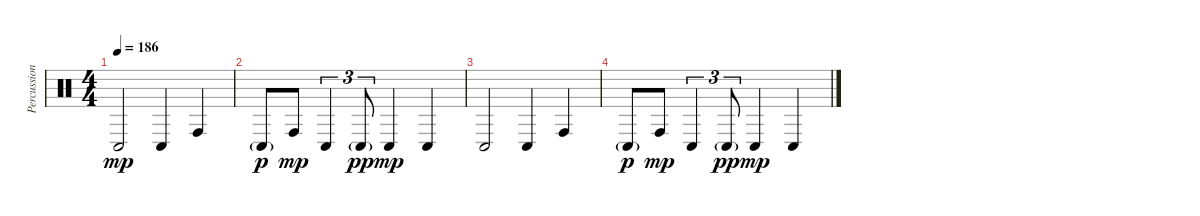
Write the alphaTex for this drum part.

\track ("Percussion" "Percussion") {instrument percussion}
\staff {score}
\articulation defaults
\ts (4 4)
\tempo 186
\clef neutral
\ks c "Conga low (hit)".2{dy mp} "Conga low (hit)".4 "Conga high (hit)".4
|
"Conga low (hit)"{g}.8{dy p} "Conga high (hit)".8{dy mp} "Conga low (hit)".4{tu (3 2)} "Conga low (hit)"{g}.8{tu (3 2) dy pp} "Conga low (hit)".4{dy mp} "Conga low (hit)".4 |
"Conga low (hit)".2 "Conga low (hit)".4 "Conga high (hit)".4 |
"Conga low (hit)"{g}.8{dy p} "Conga high (hit)".8{dy mp} "Conga low (hit)".4{tu (3 2)} "Conga low (hit)"{g}.8{tu (3 2) dy pp} "Conga low (hit)".4{dy mp} "Conga low (hit)".4
